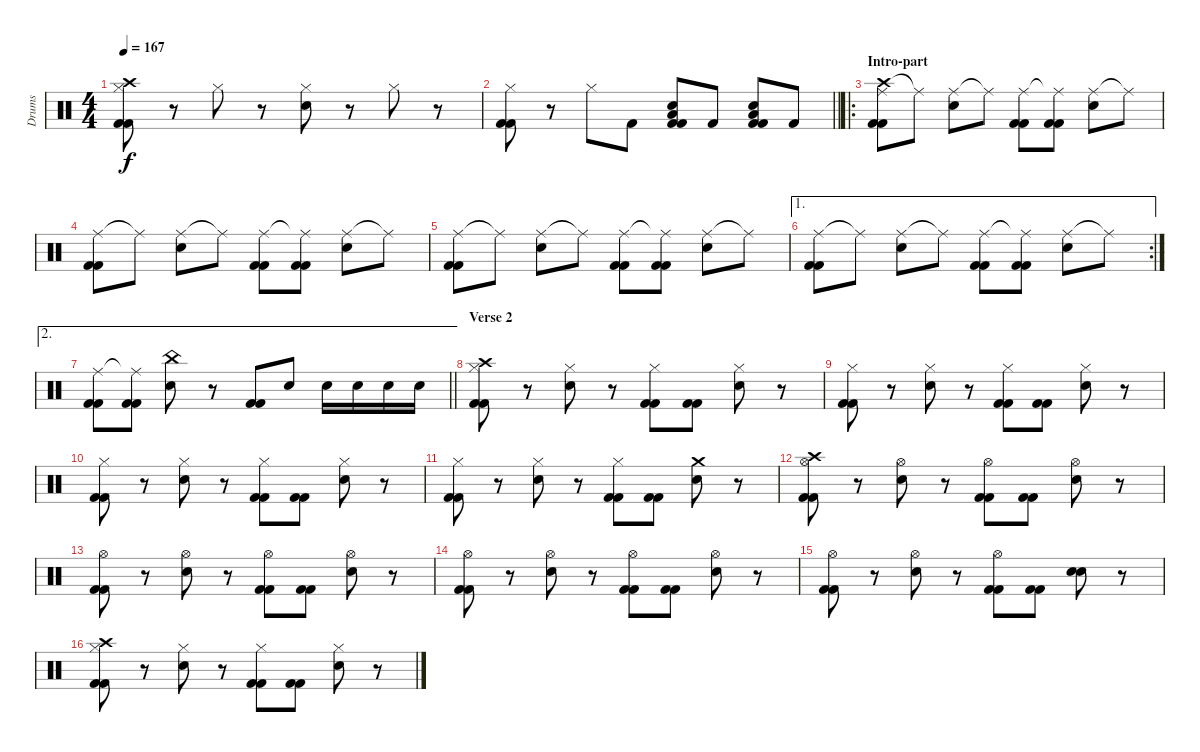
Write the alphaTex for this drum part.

\track ("Drums" "Drums") {instrument percussion}
\staff {score}
\articulation defaults
\ts (4 4)
\tempo 167
\clef neutral
\ks c
("Crash high (hit)" "Hi-Hat (closed)" "Kick (hit) 2" "Kick (hit) 2").8{dy f} r.8 "Hi-Hat (closed)".8 r.8 ("Hi-Hat (closed)" "Electric Snare (hit)").8 r.8 "Hi-Hat (closed)".8 r.8 |
\barLineRight lightlight
("Hi-Hat (closed)" "Kick (hit) 2" "Kick (hit) 2").8 r.8 "Hi-Hat (closed)".8 "Kick (hit) 2".8 ("Electric Snare (hit)" "Low Floor Tom (hit)" "Kick (hit) 2" "Kick (hit) 2").8 "Kick (hit) 2".8 ("Electric Snare (hit)" "Low Floor Tom (hit)" "Kick (hit) 2" "Kick (hit) 2").8 "Kick (hit) 2".8 |
\ro
\section ("" "Intro-part")
("Crash high (hit)" "Ride (middle)" "Kick (hit) 2" "Kick (hit) 2").8 "Ride (middle)"{t}.8 ("Ride (middle)" "Electric Snare (hit)").8 "Ride (middle)"{t}.8 ("Ride (middle)" "Kick (hit) 2" "Kick (hit) 2").8 ("Ride (middle)"{t} "Kick (hit) 2" "Kick (hit) 2").8 ("Ride (middle)" "Electric Snare (hit)").8 "Ride (middle)"{t}.8 |
("Ride (middle)" "Kick (hit) 2" "Kick (hit) 2").8 "Ride (middle)"{t}.8 ("Ride (middle)" "Electric Snare (hit)").8 "Ride (middle)"{t}.8 ("Ride (middle)" "Kick (hit) 2" "Kick (hit) 2").8 ("Ride (middle)"{t} "Kick (hit) 2" "Kick (hit) 2").8 ("Ride (middle)" "Electric Snare (hit)").8 "Ride (middle)"{t}.8 |
("Ride (middle)" "Kick (hit) 2" "Kick (hit) 2").8 "Ride (middle)"{t}.8 ("Ride (middle)" "Electric Snare (hit)").8 "Ride (middle)"{t}.8 ("Ride (middle)" "Kick (hit) 2" "Kick (hit) 2").8 ("Ride (middle)"{t} "Kick (hit) 2" "Kick (hit) 2").8 ("Ride (middle)" "Electric Snare (hit)").8 "Ride (middle)"{t}.8 |
\ae 1
\rc 2
("Ride (middle)" "Kick (hit) 2" "Kick (hit) 2").8 "Ride (middle)"{t}.8 ("Ride (middle)" "Electric Snare (hit)").8 "Ride (middle)"{t}.8 ("Ride (middle)" "Kick (hit) 2" "Kick (hit) 2").8 ("Ride (middle)"{t} "Kick (hit) 2" "Kick (hit) 2").8 ("Ride (middle)" "Electric Snare (hit)").8 "Ride (middle)"{t}.8 |
\ae 2
\barLineRight lightlight
("Ride (middle)" "Kick (hit) 2" "Kick (hit) 2").8 ("Ride (middle)"{t} "Kick (hit) 2" "Kick (hit) 2").8 ("China (hit)" "Electric Snare (hit)").8 r.8 ("Kick (hit) 2" "Kick (hit) 2").8 "Electric Snare (hit)".8 "Electric Snare (hit)".16 "Electric Snare (hit)".16 "Electric Snare (hit)".16 "Electric Snare (hit)".16 |
\section ("" "Verse 2")
("Crash high (hit)" "Hi-Hat (closed)" "Kick (hit) 2" "Kick (hit) 2").8 r.8 ("Hi-Hat (closed)" "Electric Snare (hit)").8 r.8 ("Hi-Hat (closed)" "Kick (hit) 2" "Kick (hit) 2").8 ("Kick (hit) 2" "Kick (hit) 2").8 ("Hi-Hat (closed)" "Electric Snare (hit)").8 r.8 |
("Hi-Hat (closed)" "Kick (hit) 2" "Kick (hit) 2").8 r.8 ("Hi-Hat (closed)" "Electric Snare (hit)").8 r.8 ("Hi-Hat (closed)" "Kick (hit) 2" "Kick (hit) 2").8 ("Kick (hit) 2" "Kick (hit) 2").8 ("Hi-Hat (closed)" "Electric Snare (hit)").8 r.8 |
("Hi-Hat (closed)" "Kick (hit) 2" "Kick (hit) 2").8 r.8 ("Hi-Hat (closed)" "Electric Snare (hit)").8 r.8 ("Hi-Hat (closed)" "Kick (hit) 2" "Kick (hit) 2").8 ("Kick (hit) 2" "Kick (hit) 2").8 ("Hi-Hat (closed)" "Electric Snare (hit)").8 r.8 |
("Hi-Hat (closed)" "Kick (hit) 2" "Kick (hit) 2").8 r.8 ("Hi-Hat (closed)" "Electric Snare (hit)").8 r.8 ("Hi-Hat (closed)" "Kick (hit) 2" "Kick (hit) 2").8 ("Kick (hit) 2" "Kick (hit) 2").8 ("Crash medium (hit)" "Electric Snare (hit)").8 r.8 |
("Crash high (hit)" "Hi-Hat (open)" "Kick (hit) 2" "Kick (hit) 2").8 r.8 ("Hi-Hat (open)" "Electric Snare (hit)").8 r.8 ("Hi-Hat (open)" "Kick (hit) 2" "Kick (hit) 2").8 ("Kick (hit) 2" "Kick (hit) 2").8 ("Hi-Hat (open)" "Electric Snare (hit)").8 r.8 |
("Hi-Hat (open)" "Kick (hit) 2" "Kick (hit) 2").8 r.8 ("Hi-Hat (open)" "Electric Snare (hit)").8 r.8 ("Hi-Hat (open)" "Kick (hit) 2" "Kick (hit) 2").8 ("Kick (hit) 2" "Kick (hit) 2").8 ("Hi-Hat (open)" "Electric Snare (hit)").8 r.8 |
("Hi-Hat (open)" "Kick (hit) 2" "Kick (hit) 2").8 r.8 ("Hi-Hat (open)" "Electric Snare (hit)").8 r.8 ("Hi-Hat (open)" "Kick (hit) 2" "Kick (hit) 2").8 ("Kick (hit) 2" "Kick (hit) 2").8 ("Hi-Hat (open)" "Electric Snare (hit)").8 r.8 |
("Hi-Hat (open)" "Kick (hit) 2" "Kick (hit) 2").8 r.8 ("Hi-Hat (open)" "Electric Snare (hit)").8 r.8 ("Hi-Hat (open)" "Kick (hit) 2" "Kick (hit) 2").8 ("Kick (hit) 2" "Kick (hit) 2").8 ("Electric Snare (hit)" "Electric Snare (hit)").8{bd 120} r.8 |
("Crash high (hit)" "Hi-Hat (closed)" "Kick (hit) 2" "Kick (hit) 2").8 r.8 ("Hi-Hat (closed)" "Electric Snare (hit)").8 r.8 ("Hi-Hat (closed)" "Kick (hit) 2" "Kick (hit) 2").8 ("Kick (hit) 2" "Kick (hit) 2").8 ("Hi-Hat (closed)" "Electric Snare (hit)").8 r.8
